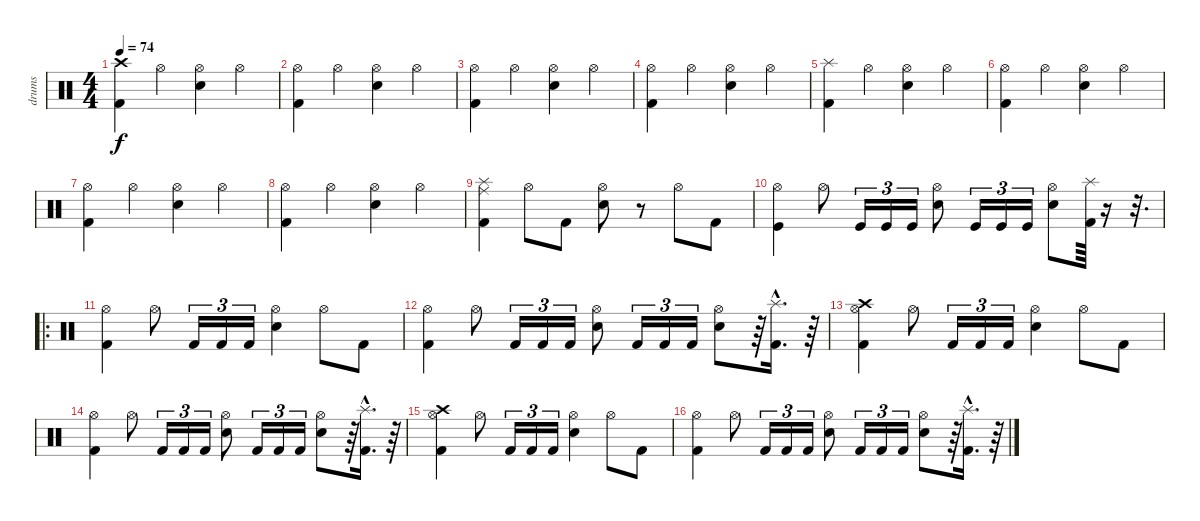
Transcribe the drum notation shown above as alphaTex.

\track ("drums" "drums") {instrument percussion}
\staff {score}
\articulation defaults
\ts (4 4)
\tempo 74
\clef neutral
\ks c
("Crash high (hit)" "Kick (hit) 2").4{dy f volume 5} "Hi-Hat (open)".4 ("Hi-Hat (open)" "Electric Snare (hit)").4 "Hi-Hat (open)".4 |
("Hi-Hat (open)" "Kick (hit) 2").4 "Hi-Hat (open)".4 ("Hi-Hat (open)" "Electric Snare (hit)").4 "Hi-Hat (open)".4 |
("Hi-Hat (open)" "Kick (hit) 2").4 "Hi-Hat (open)".4 ("Hi-Hat (open)" "Electric Snare (hit)").4 "Hi-Hat (open)".4 |
("Hi-Hat (open)" "Kick (hit) 2").4 "Hi-Hat (open)".4 ("Hi-Hat (open)" "Electric Snare (hit)").4 "Hi-Hat (open)".4 |
("Splash (hit)" "Kick (hit) 2").4 "Hi-Hat (open)".4 ("Hi-Hat (open)" "Electric Snare (hit)").4 "Hi-Hat (open)".4 |
("Hi-Hat (open)" "Kick (hit) 2").4 "Hi-Hat (open)".4 ("Hi-Hat (open)" "Electric Snare (hit)").4 "Hi-Hat (open)".4 |
("Hi-Hat (open)" "Kick (hit) 2").4 "Hi-Hat (open)".4 ("Hi-Hat (open)" "Electric Snare (hit)").4 "Hi-Hat (open)".4 |
("Hi-Hat (open)" "Kick (hit) 2").4{volume 10} "Hi-Hat (open)".4 ("Hi-Hat (open)" "Electric Snare (hit)").4 "Hi-Hat (open)".4 |
("Ride (middle)" "Splash (hit)" "Kick (hit) 2").4 "Hi-Hat (open)".8 "Kick (hit) 2".8 ("Hi-Hat (open)" "Electric Snare (hit)").8 r.8 "Hi-Hat (open)".8 "Kick (hit) 2".8 |
("Hi-Hat (open)" "Kick (hit)").4 "Hi-Hat (open)".8 "Kick (hit)".16{tu (3 2)} "Kick (hit)".16{tu (3 2)} "Kick (hit)".16{tu (3 2)} ("Hi-Hat (open)" "Electric Snare (hit)").8 "Kick (hit)".16{tu (3 2)} "Kick (hit)".16{tu (3 2)} "Kick (hit)".16{tu (3 2)} ("Hi-Hat (open)" "Electric Snare (hit)").8 ("Splash (hit)" "Kick (hit) 2").64 r.16 r.32{d} |
\ro
("Kick (hit) 2" "Hi-Hat (open)").4{volume 13} "Hi-Hat (open)".8 "Kick (hit) 2".16{tu (3 2)} "Kick (hit) 2".16{tu (3 2)} "Kick (hit) 2".16{tu (3 2)} ("Hi-Hat (open)" "Snare (hit) 2").4 "Hi-Hat (open)".8 "Kick (hit) 2".8 |
("Hi-Hat (open)" "Kick (hit) 2").4 "Hi-Hat (open)".8 "Kick (hit) 2".16{tu (3 2)} "Kick (hit) 2".16{tu (3 2)} "Kick (hit) 2".16{tu (3 2)} ("Snare (hit) 2" "Hi-Hat (open)").8 "Kick (hit) 2".16{tu (3 2)} "Kick (hit) 2".16{tu (3 2)} "Kick (hit) 2".16{tu (3 2)} ("Hi-Hat (open)" "Snare (hit) 2").8 r.64 ("Splash (hit)"{hac} "Kick (hit) 2"{hac}).16{d} r.64 |
("Kick (hit) 2" "Crash high (hit)" "Hi-Hat (open)").4 "Hi-Hat (open)".8 "Kick (hit) 2".16{tu (3 2)} "Kick (hit) 2".16{tu (3 2)} "Kick (hit) 2".16{tu (3 2)} ("Hi-Hat (open)" "Snare (hit) 2").4 "Hi-Hat (open)".8 "Kick (hit) 2".8 |
("Hi-Hat (open)" "Kick (hit) 2").4 "Hi-Hat (open)".8 "Kick (hit) 2".16{tu (3 2)} "Kick (hit) 2".16{tu (3 2)} "Kick (hit) 2".16{tu (3 2)} ("Snare (hit) 2" "Hi-Hat (open)").8 "Kick (hit) 2".16{tu (3 2)} "Kick (hit) 2".16{tu (3 2)} "Kick (hit) 2".16{tu (3 2)} ("Hi-Hat (open)" "Snare (hit) 2").8 r.64 ("Splash (hit)"{hac} "Kick (hit) 2"{hac}).16{d} r.64 |
("Kick (hit) 2" "Crash high (hit)" "Hi-Hat (open)").4 "Hi-Hat (open)".8 "Kick (hit) 2".16{tu (3 2)} "Kick (hit) 2".16{tu (3 2)} "Kick (hit) 2".16{tu (3 2)} ("Hi-Hat (open)" "Snare (hit) 2").4 "Hi-Hat (open)".8 "Kick (hit) 2".8 |
("Hi-Hat (open)" "Kick (hit) 2").4 "Hi-Hat (open)".8 "Kick (hit) 2".16{tu (3 2)} "Kick (hit) 2".16{tu (3 2)} "Kick (hit) 2".16{tu (3 2)} ("Snare (hit) 2" "Hi-Hat (open)").8 "Kick (hit) 2".16{tu (3 2)} "Kick (hit) 2".16{tu (3 2)} "Kick (hit) 2".16{tu (3 2)} ("Hi-Hat (open)" "Snare (hit) 2").8 r.64 ("Splash (hit)"{hac} "Kick (hit) 2"{hac}).16{d} r.64
